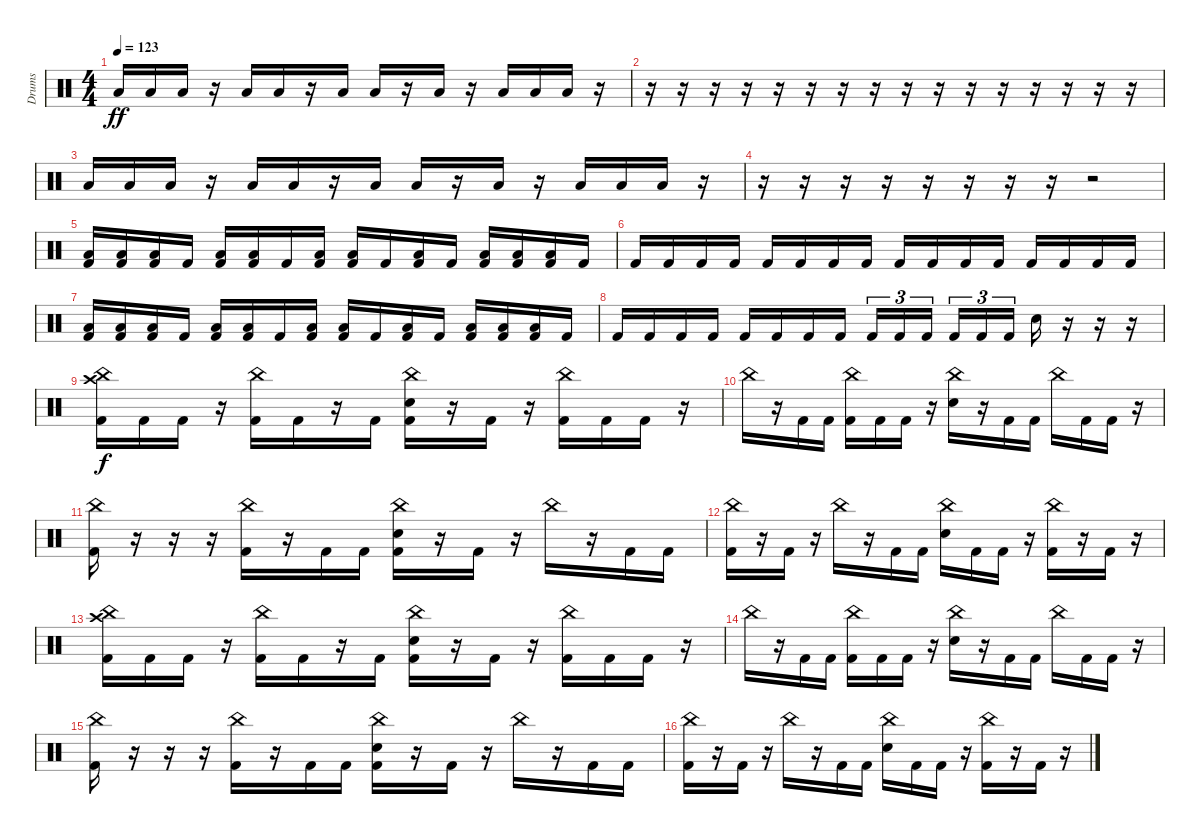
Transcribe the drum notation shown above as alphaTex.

\track ("Drums" "Drums") {instrument percussion}
\staff {score}
\articulation defaults
\ts (4 4)
\tempo 123
\clef neutral
\ks c "Low Floor Tom (hit)".16{dy ff} "Low Floor Tom (hit)".16 "Low Floor Tom (hit)".16
r.16 "Low Floor Tom (hit)".16 "Low Floor Tom (hit)".16 r.16 "Low Floor Tom (hit)".16 "Low Floor Tom (hit)".16 r.16 "Low Floor Tom (hit)".16 r.16 "Low Floor Tom (hit)".16 "Low Floor Tom (hit)".16 "Low Floor Tom (hit)".16 r.16 |
r.16 r.16 r.16 r.16 r.16 r.16 r.16 r.16 r.16 r.16 r.16 r.16 r.16 r.16 r.16 r.16 |
"Low Floor Tom (hit)".16 "Low Floor Tom (hit)".16 "Low Floor Tom (hit)".16 r.16 "Low Floor Tom (hit)".16 "Low Floor Tom (hit)".16 r.16 "Low Floor Tom (hit)".16 "Low Floor Tom (hit)".16 r.16 "Low Floor Tom (hit)".16 r.16 "Low Floor Tom (hit)".16 "Low Floor Tom (hit)".16 "Low Floor Tom (hit)".16 r.16 |
r.16 r.16 r.16 r.16 r.16 r.16 r.16 r.16 r.2{volume 0} |
("Low Floor Tom (hit)" "Kick (hit) 2").16 ("Low Floor Tom (hit)" "Kick (hit) 2").16 ("Low Floor Tom (hit)" "Kick (hit) 2").16 "Kick (hit) 2".16 ("Low Floor Tom (hit)" "Kick (hit) 2").16 ("Low Floor Tom (hit)" "Kick (hit) 2").16 "Kick (hit) 2".16 ("Low Floor Tom (hit)" "Kick (hit) 2").16 ("Low Floor Tom (hit)" "Kick (hit) 2").16 "Kick (hit) 2".16 ("Low Floor Tom (hit)" "Kick (hit) 2").16 "Kick (hit) 2".16 ("Low Floor Tom (hit)" "Kick (hit) 2").16 ("Low Floor Tom (hit)" "Kick (hit) 2").16 ("Low Floor Tom (hit)" "Kick (hit) 2").16 "Kick (hit) 2".16 |
"Kick (hit) 2".16 "Kick (hit) 2".16 "Kick (hit) 2".16 "Kick (hit) 2".16 "Kick (hit) 2".16 "Kick (hit) 2".16 "Kick (hit) 2".16 "Kick (hit) 2".16 "Kick (hit) 2".16 "Kick (hit) 2".16 "Kick (hit) 2".16 "Kick (hit) 2".16 "Kick (hit) 2".16 "Kick (hit) 2".16 "Kick (hit) 2".16 "Kick (hit) 2".16 |
("Low Floor Tom (hit)" "Kick (hit) 2").16 ("Low Floor Tom (hit)" "Kick (hit) 2").16 ("Low Floor Tom (hit)" "Kick (hit) 2").16 "Kick (hit) 2".16 ("Low Floor Tom (hit)" "Kick (hit) 2").16 ("Low Floor Tom (hit)" "Kick (hit) 2").16 "Kick (hit) 2".16 ("Low Floor Tom (hit)" "Kick (hit) 2").16 ("Low Floor Tom (hit)" "Kick (hit) 2").16 "Kick (hit) 2".16 ("Low Floor Tom (hit)" "Kick (hit) 2").16 "Kick (hit) 2".16 ("Low Floor Tom (hit)" "Kick (hit) 2").16 ("Low Floor Tom (hit)" "Kick (hit) 2").16 ("Low Floor Tom (hit)" "Kick (hit) 2").16 "Kick (hit) 2".16 |
"Kick (hit) 2".16 "Kick (hit) 2".16 "Kick (hit) 2".16 "Kick (hit) 2".16 "Kick (hit) 2".16 "Kick (hit) 2".16 "Kick (hit) 2".16 "Kick (hit) 2".16 "Kick (hit) 2".16{tu (3 2)} "Kick (hit) 2".16{tu (3 2)} "Kick (hit) 2".16{tu (3 2) beam splitsecondary} "Kick (hit) 2".16{tu (3 2)} "Kick (hit) 2".16{tu (3 2)} "Kick (hit) 2".16{tu (3 2)} "Electric Snare (hit)".16 r.16 r.16 r.16 |
("China (hit)" "Crash high (hit)" "Kick (hit) 2").16{dy f volume 13} "Kick (hit) 2".16 "Kick (hit) 2".16 r.16 ("China (hit)" "Kick (hit) 2").16 "Kick (hit) 2".16 r.16 "Kick (hit) 2".16 ("China (hit)" "Electric Snare (hit)" "Kick (hit) 2").16 r.16 "Kick (hit) 2".16 r.16 ("China (hit)" "Kick (hit) 2").16 "Kick (hit) 2".16 "Kick (hit) 2".16 r.16 |
"China (hit)".16 r.16 "Kick (hit) 2".16 "Kick (hit) 2".16 ("China (hit)" "Kick (hit) 2").16 "Kick (hit) 2".16 "Kick (hit) 2".16 r.16 ("China (hit)" "Electric Snare (hit)").16 r.16 "Kick (hit) 2".16 "Kick (hit) 2".16 "China (hit)".16 "Kick (hit) 2".16 "Kick (hit) 2".16 r.16 |
("China (hit)" "Kick (hit) 2").16 r.16 r.16 r.16 ("China (hit)" "Kick (hit) 2").16 r.16 "Kick (hit) 2".16 "Kick (hit) 2".16 ("China (hit)" "Electric Snare (hit)" "Kick (hit) 2").16 r.16 "Kick (hit) 2".16 r.16 "China (hit)".16 r.16 "Kick (hit) 2".16 "Kick (hit) 2".16 |
("China (hit)" "Kick (hit) 2").16 r.16 "Kick (hit) 2".16 r.16 "China (hit)".16 r.16 "Kick (hit) 2".16 "Kick (hit) 2".16 ("China (hit)" "Electric Snare (hit)").16 "Kick (hit) 2".16 "Kick (hit) 2".16 r.16 ("China (hit)" "Kick (hit) 2").16 r.16 "Kick (hit) 2".16 r.16 |
("China (hit)" "Crash high (hit)" "Kick (hit) 2").16{volume 7} "Kick (hit) 2".16 "Kick (hit) 2".16 r.16 ("China (hit)" "Kick (hit) 2").16 "Kick (hit) 2".16 r.16 "Kick (hit) 2".16 ("China (hit)" "Electric Snare (hit)" "Kick (hit) 2").16 r.16 "Kick (hit) 2".16 r.16 ("China (hit)" "Kick (hit) 2").16 "Kick (hit) 2".16 "Kick (hit) 2".16 r.16 |
"China (hit)".16 r.16 "Kick (hit) 2".16 "Kick (hit) 2".16 ("China (hit)" "Kick (hit) 2").16 "Kick (hit) 2".16 "Kick (hit) 2".16 r.16 ("China (hit)" "Electric Snare (hit)").16 r.16 "Kick (hit) 2".16 "Kick (hit) 2".16 "China (hit)".16 "Kick (hit) 2".16 "Kick (hit) 2".16 r.16 |
("China (hit)" "Kick (hit) 2").16 r.16 r.16 r.16 ("China (hit)" "Kick (hit) 2").16 r.16 "Kick (hit) 2".16 "Kick (hit) 2".16 ("China (hit)" "Electric Snare (hit)" "Kick (hit) 2").16 r.16 "Kick (hit) 2".16 r.16 "China (hit)".16 r.16 "Kick (hit) 2".16 "Kick (hit) 2".16 |
("China (hit)" "Kick (hit) 2").16 r.16 "Kick (hit) 2".16 r.16 "China (hit)".16 r.16 "Kick (hit) 2".16 "Kick (hit) 2".16 ("China (hit)" "Electric Snare (hit)").16 "Kick (hit) 2".16 "Kick (hit) 2".16 r.16 ("China (hit)" "Kick (hit) 2").16 r.16 "Kick (hit) 2".16 r.16
